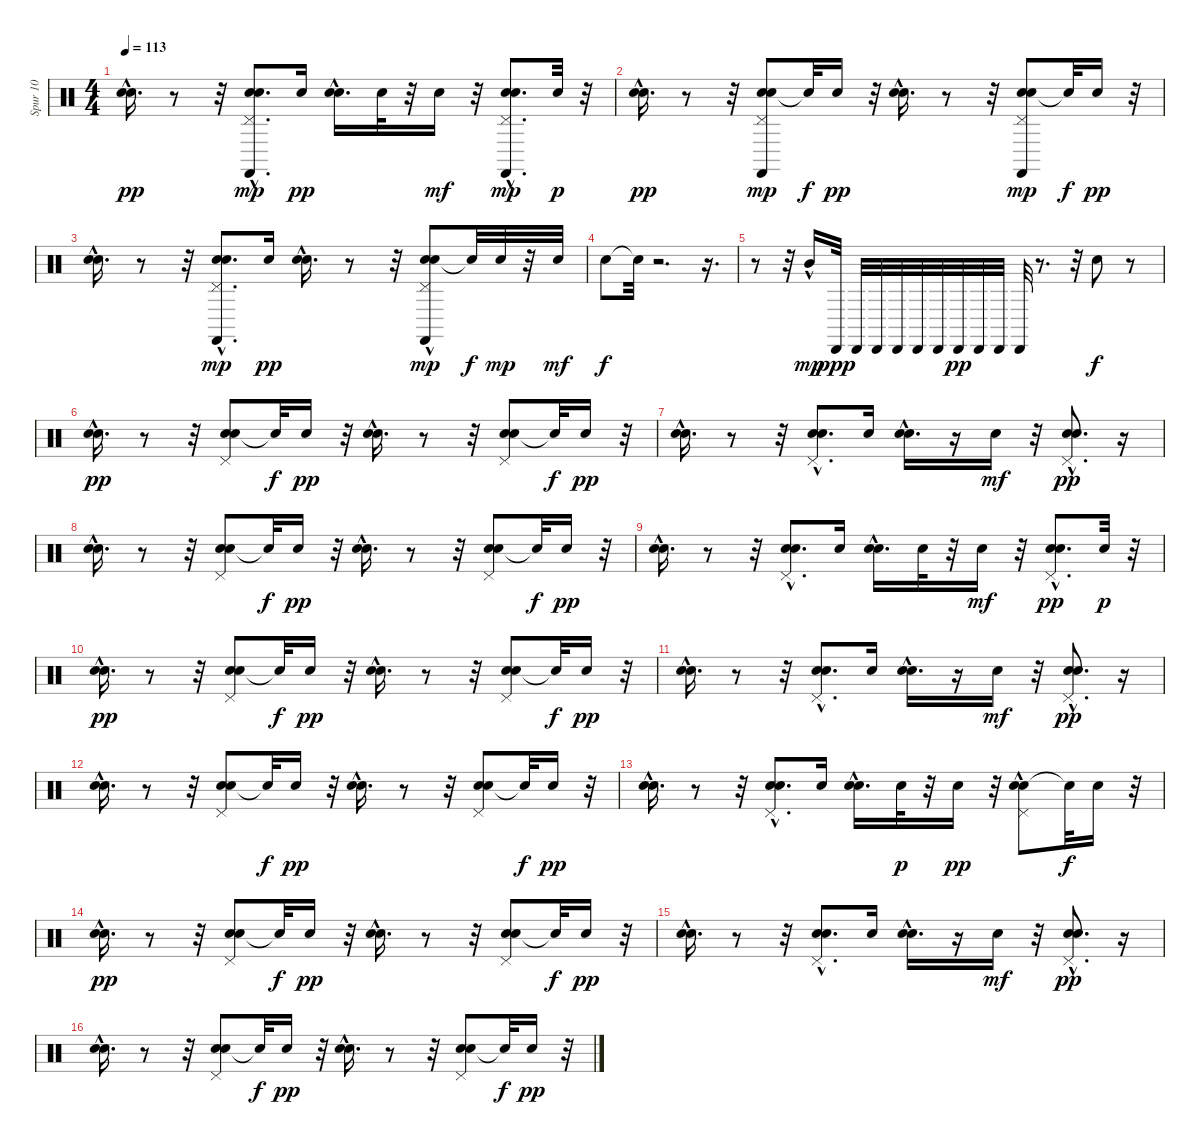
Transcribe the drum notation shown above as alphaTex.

\track ("Spur 10" "Spur 10") {instrument percussion}
\staff {score}
\articulation defaults
\ts (4 4)
\tempo 113
\clef neutral
\ks c
("Snare (hit) 2"{hac} "Electric Snare (hit)").16{d dy pp} r.8 r.32 ("Snare (hit) 2" "Pedal Hi-Hat (hit)"{hac} "Electric Snare (hit)" "Castanets (hit)").8{d dy mp} "Snare (hit) 2".16{dy pp} ("Snare (hit) 2"{hac} "Electric Snare (hit)").16{d} "Snare (hit) 2".32 r.32 "Snare (hit) 2".16{dy mf} r.32 ("Snare (hit) 2"{hac} "Pedal Hi-Hat (hit)"{hac} "Electric Snare (hit)" "Castanets (hit)").8{d dy mp} "Snare (hit) 2".32{dy p} r.32 |
("Snare (hit) 2"{hac} "Electric Snare (hit)").16{d dy pp} r.8 r.32 ("Snare (hit) 2" "Pedal Hi-Hat (hit)" "Electric Snare (hit)" "Castanets (hit)").8{dy mp} "Snare (hit)"{t}.32{dy f} "Snare (hit) 2".16{dy pp} r.32 ("Snare (hit) 2"{hac} "Electric Snare (hit)").16{d} r.8 r.32 ("Snare (hit) 2" "Pedal Hi-Hat (hit)" "Electric Snare (hit)" "Castanets (hit)").8{dy mp} "Snare (hit)"{t}.32{dy f} "Snare (hit) 2".16{dy pp} r.32 |
("Snare (hit) 2"{hac} "Electric Snare (hit)").16{d} r.8 r.32 ("Snare (hit) 2" "Pedal Hi-Hat (hit)"{hac} "Electric Snare (hit)" "Castanets (hit)").8{d dy mp} "Snare (hit) 2".16{dy pp} ("Snare (hit) 2"{hac} "Electric Snare (hit)").16{d} r.8 r.32 ("Snare (hit) 2"{hac} "Pedal Hi-Hat (hit)" "Electric Snare (hit)" "Castanets (hit)").8{dy mp} "Snare (hit)"{t}.32{dy f} "Snare (hit) 2".32{dy mp} r.32 "Snare (hit) 2".32{dy mf} |
"Hand Clap (hit)".8{dy f} "Snare (hit)"{t}.32 r.2{d} r.16{d} |
r.8 r.32 "Mid Tom (hit)"{hac}.16{dy mp} "Cabasa (hit)".32{dy ppp} "Cabasa (hit)".32 "Cabasa (hit)".32 "Cabasa (hit)".32 "Cabasa (hit)".32 "Cabasa (hit)".32 "Cabasa (hit)".32{dy pp} "Cabasa (hit)".32 "Cabasa (hit)".32 "Cabasa (hit)".32 r.8{d} r.32 "Hand Clap (hit)".8{dy f} r.8 |
("Snare (hit) 2"{hac} "Electric Snare (hit)").16{d dy pp} r.8 r.32 ("Snare (hit) 2" "Pedal Hi-Hat (hit)" "Electric Snare (hit)").8 "Snare (hit)"{t}.32{dy f} "Snare (hit) 2".16{dy pp} r.32 ("Snare (hit) 2"{hac} "Electric Snare (hit)").16{d} r.8 r.32 ("Snare (hit) 2" "Pedal Hi-Hat (hit)" "Electric Snare (hit)").8 "Snare (hit)"{t}.32{dy f} "Snare (hit) 2".16{dy pp} r.32 |
("Snare (hit) 2"{hac} "Electric Snare (hit)").16{d} r.8 r.32 ("Snare (hit) 2" "Pedal Hi-Hat (hit)"{hac} "Electric Snare (hit)").8{d} "Snare (hit) 2".16 ("Snare (hit) 2"{hac} "Electric Snare (hit)").16{d} r.16 "Snare (hit) 2".16{dy mf} r.32 ("Snare (hit) 2"{hac} "Pedal Hi-Hat (hit)"{hac} "Electric Snare (hit)").8{d dy pp} r.16 |
("Snare (hit) 2"{hac} "Electric Snare (hit)").16{d} r.8 r.32 ("Snare (hit) 2" "Pedal Hi-Hat (hit)" "Electric Snare (hit)").8 "Snare (hit)"{t}.32{dy f} "Snare (hit) 2".16{dy pp} r.32 ("Snare (hit) 2"{hac} "Electric Snare (hit)").16{d} r.8 r.32 ("Snare (hit) 2" "Pedal Hi-Hat (hit)" "Electric Snare (hit)").8 "Snare (hit)"{t}.32{dy f} "Snare (hit) 2".16{dy pp} r.32 |
("Snare (hit) 2"{hac} "Electric Snare (hit)").16{d} r.8 r.32 ("Snare (hit) 2" "Pedal Hi-Hat (hit)"{hac} "Electric Snare (hit)").8{d} "Snare (hit) 2".16 ("Snare (hit) 2"{hac} "Electric Snare (hit)").16{d} "Snare (hit) 2".32 r.32 "Snare (hit) 2".16{dy mf} r.32 ("Snare (hit) 2"{hac} "Pedal Hi-Hat (hit)"{hac} "Electric Snare (hit)").8{d dy pp} "Snare (hit) 2".32{dy p} r.32 |
("Snare (hit) 2"{hac} "Electric Snare (hit)").16{d dy pp} r.8 r.32 ("Snare (hit) 2" "Pedal Hi-Hat (hit)" "Electric Snare (hit)").8 "Snare (hit)"{t}.32{dy f} "Snare (hit) 2".16{dy pp} r.32 ("Snare (hit) 2"{hac} "Electric Snare (hit)").16{d} r.8 r.32 ("Snare (hit) 2" "Pedal Hi-Hat (hit)" "Electric Snare (hit)").8 "Snare (hit)"{t}.32{dy f} "Snare (hit) 2".16{dy pp} r.32 |
("Snare (hit) 2"{hac} "Electric Snare (hit)").16{d} r.8 r.32 ("Snare (hit) 2" "Pedal Hi-Hat (hit)"{hac} "Electric Snare (hit)").8{d} "Snare (hit) 2".16 ("Snare (hit) 2"{hac} "Electric Snare (hit)").16{d} r.16 "Snare (hit) 2".16{dy mf} r.32 ("Snare (hit) 2"{hac} "Pedal Hi-Hat (hit)"{hac} "Electric Snare (hit)").8{d dy pp} r.16 |
("Snare (hit) 2"{hac} "Electric Snare (hit)").16{d} r.8 r.32 ("Snare (hit) 2" "Pedal Hi-Hat (hit)" "Electric Snare (hit)").8 "Snare (hit)"{t}.32{dy f} "Snare (hit) 2".16{dy pp} r.32 ("Snare (hit) 2"{hac} "Electric Snare (hit)").16{d} r.8 r.32 ("Snare (hit) 2" "Pedal Hi-Hat (hit)" "Electric Snare (hit)").8 "Snare (hit)"{t}.32{dy f} "Snare (hit) 2".16{dy pp} r.32 |
("Snare (hit) 2"{hac} "Electric Snare (hit)").16{d} r.8 r.32 ("Snare (hit) 2" "Pedal Hi-Hat (hit)"{hac} "Electric Snare (hit)").8{d} "Snare (hit) 2".16 ("Snare (hit) 2"{hac} "Electric Snare (hit)").16{d} "Snare (hit) 2".32{dy p} r.32 "Snare (hit) 2".16{dy pp} r.32 ("Hand Clap (hit)"{hac} "Pedal Hi-Hat (hit)" "Electric Snare (hit)").8 "Snare (hit)"{t}.32{dy f} "Hand Clap (hit)".16 r.32 |
("Snare (hit) 2"{hac} "Electric Snare (hit)").16{d dy pp} r.8 r.32 ("Snare (hit) 2" "Pedal Hi-Hat (hit)" "Electric Snare (hit)").8 "Snare (hit)"{t}.32{dy f} "Snare (hit) 2".16{dy pp} r.32 ("Snare (hit) 2"{hac} "Electric Snare (hit)").16{d} r.8 r.32 ("Snare (hit) 2" "Pedal Hi-Hat (hit)" "Electric Snare (hit)").8 "Snare (hit)"{t}.32{dy f} "Snare (hit) 2".16{dy pp} r.32 |
("Snare (hit) 2"{hac} "Electric Snare (hit)").16{d} r.8 r.32 ("Snare (hit) 2" "Pedal Hi-Hat (hit)"{hac} "Electric Snare (hit)").8{d} "Snare (hit) 2".16 ("Snare (hit) 2"{hac} "Electric Snare (hit)").16{d} r.16 "Snare (hit) 2".16{dy mf} r.32 ("Snare (hit) 2"{hac} "Pedal Hi-Hat (hit)"{hac} "Electric Snare (hit)").8{d dy pp} r.16 |
("Snare (hit) 2"{hac} "Electric Snare (hit)").16{d} r.8 r.32 ("Snare (hit) 2" "Pedal Hi-Hat (hit)" "Electric Snare (hit)").8 "Snare (hit)"{t}.32{dy f} "Snare (hit) 2".16{dy pp} r.32 ("Snare (hit) 2"{hac} "Electric Snare (hit)").16{d} r.8 r.32 ("Snare (hit) 2" "Pedal Hi-Hat (hit)" "Electric Snare (hit)").8 "Snare (hit)"{t}.32{dy f} "Snare (hit) 2".16{dy pp} r.32
